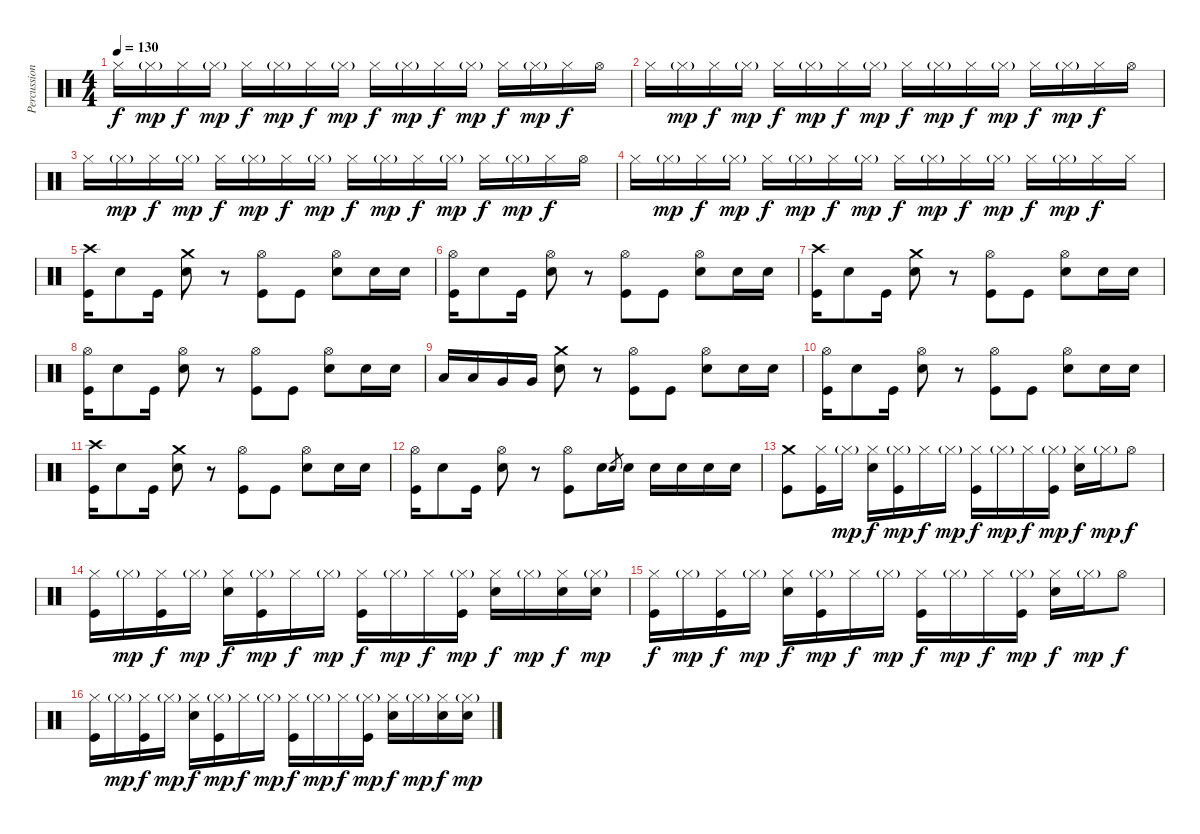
\track ("Percussion" "Percussion") {instrument percussion}
\staff {score}
\articulation defaults
\ts (4 4)
\tempo 130
\clef neutral
\ks c "Hi-Hat (closed)".16{dy f} "Hi-Hat (closed)"{g}.16{dy mp} "Hi-Hat (closed)".16{dy f} "Hi-Hat (closed)"{g}.16{dy mp} "Hi-Hat (closed)".16{dy f} "Hi-Hat (closed)"{g}.16{dy mp} "Hi-Hat (closed)".16{dy f} "Hi-Hat (closed)"{g}.16{dy mp} "Hi-Hat (closed)".16{dy f} "Hi-Hat (closed)"{g}.16{dy mp} "Hi-Hat (closed)".16{dy f} "Hi-Hat (closed)"{g}.16{dy mp} "Hi-Hat (closed)".16{dy f} "Hi-Hat (closed)"{g}.16{dy mp} "Hi-Hat (closed)".16{dy f} "Hi-Hat (open)".16
|
"Hi-Hat (closed)".16 "Hi-Hat (closed)"{g}.16{dy mp} "Hi-Hat (closed)".16{dy f} "Hi-Hat (closed)"{g}.16{dy mp} "Hi-Hat (closed)".16{dy f} "Hi-Hat (closed)"{g}.16{dy mp} "Hi-Hat (closed)".16{dy f} "Hi-Hat (closed)"{g}.16{dy mp} "Hi-Hat (closed)".16{dy f} "Hi-Hat (closed)"{g}.16{dy mp} "Hi-Hat (closed)".16{dy f} "Hi-Hat (closed)"{g}.16{dy mp} "Hi-Hat (closed)".16{dy f} "Hi-Hat (closed)"{g}.16{dy mp} "Hi-Hat (closed)".16{dy f} "Hi-Hat (open)".16 |
"Hi-Hat (closed)".16 "Hi-Hat (closed)"{g}.16{dy mp} "Hi-Hat (closed)".16{dy f} "Hi-Hat (closed)"{g}.16{dy mp} "Hi-Hat (closed)".16{dy f} "Hi-Hat (closed)"{g}.16{dy mp} "Hi-Hat (closed)".16{dy f} "Hi-Hat (closed)"{g}.16{dy mp} "Hi-Hat (closed)".16{dy f} "Hi-Hat (closed)"{g}.16{dy mp} "Hi-Hat (closed)".16{dy f} "Hi-Hat (closed)"{g}.16{dy mp} "Hi-Hat (closed)".16{dy f} "Hi-Hat (closed)"{g}.16{dy mp} "Hi-Hat (closed)".16{dy f} "Hi-Hat (open)".16 |
"Hi-Hat (closed)".16 "Hi-Hat (closed)"{g}.16{dy mp} "Hi-Hat (closed)".16{dy f} "Hi-Hat (closed)"{g}.16{dy mp} "Hi-Hat (closed)".16{dy f} "Hi-Hat (closed)"{g}.16{dy mp} "Hi-Hat (closed)".16{dy f} "Hi-Hat (closed)"{g}.16{dy mp} "Hi-Hat (closed)".16{dy f} "Hi-Hat (closed)"{g}.16{dy mp} "Hi-Hat (closed)".16{dy f} "Hi-Hat (closed)"{g}.16{dy mp} "Hi-Hat (closed)".16{dy f} "Hi-Hat (closed)"{g}.16{dy mp} "Hi-Hat (closed)".16{dy f} "Hi-Hat (closed)".16 |
("Crash high (hit)" "Kick (hit)").16 "Electric Snare (hit)".8 "Kick (hit)".16 ("Crash medium (hit)" "Electric Snare (hit)").8 r.8 ("Hi-Hat (open)" "Kick (hit)").8 "Kick (hit)".8 ("Hi-Hat (open)" "Electric Snare (hit)").8 "Electric Snare (hit)".16 "Electric Snare (hit)".16 |
("Hi-Hat (open)" "Kick (hit)").16 "Electric Snare (hit)".8 "Kick (hit)".16 ("Hi-Hat (open)" "Electric Snare (hit)").8 r.8 ("Hi-Hat (open)" "Kick (hit)").8 "Kick (hit)".8 ("Hi-Hat (open)" "Electric Snare (hit)").8 "Electric Snare (hit)".16 "Electric Snare (hit)".16 |
("Crash high (hit)" "Kick (hit)").16 "Electric Snare (hit)".8 "Kick (hit)".16 ("Crash medium (hit)" "Electric Snare (hit)").8 r.8 ("Hi-Hat (open)" "Kick (hit)").8 "Kick (hit)".8 ("Hi-Hat (open)" "Electric Snare (hit)").8 "Electric Snare (hit)".16 "Electric Snare (hit)".16 |
("Hi-Hat (open)" "Kick (hit)").16 "Electric Snare (hit)".8 "Kick (hit)".16 ("Hi-Hat (open)" "Electric Snare (hit)").8 r.8 ("Hi-Hat (open)" "Kick (hit)").8 "Kick (hit)".8 ("Hi-Hat (open)" "Electric Snare (hit)").8 "Electric Snare (hit)".16 "Electric Snare (hit)".16 |
"Low Tom (hit)".16 "Low Tom (hit)".16 "Very Low Tom (hit)".16 "Very Low Tom (hit)".16 ("Crash medium (hit)" "Electric Snare (hit)").8 r.8 ("Hi-Hat (open)" "Kick (hit)").8 "Kick (hit)".8 ("Hi-Hat (open)" "Electric Snare (hit)").8 "Electric Snare (hit)".16 "Electric Snare (hit)".16 |
("Hi-Hat (open)" "Kick (hit)").16 "Electric Snare (hit)".8 "Kick (hit)".16 ("Hi-Hat (open)" "Electric Snare (hit)").8 r.8 ("Hi-Hat (open)" "Kick (hit)").8 "Kick (hit)".8 ("Hi-Hat (open)" "Electric Snare (hit)").8 "Electric Snare (hit)".16 "Electric Snare (hit)".16 |
("Crash high (hit)" "Kick (hit)").16 "Electric Snare (hit)".8 "Kick (hit)".16 ("Crash medium (hit)" "Electric Snare (hit)").8 r.8 ("Hi-Hat (open)" "Kick (hit)").8 "Kick (hit)".8 ("Hi-Hat (open)" "Electric Snare (hit)").8 "Electric Snare (hit)".16 "Electric Snare (hit)".16 |
("Hi-Hat (open)" "Kick (hit)").16 "Electric Snare (hit)".8 "Kick (hit)".16 ("Hi-Hat (open)" "Electric Snare (hit)").8 r.8 ("Hi-Hat (open)" "Kick (hit)").8 "Electric Snare (hit)".16 "Electric Snare (hit)".8{gr} "Electric Snare (hit)".16 "Electric Snare (hit)".16 "Electric Snare (hit)".16 "Electric Snare (hit)".16 "Electric Snare (hit)".16 |
("Crash medium (hit)" "Kick (hit)").8 ("Hi-Hat (closed)" "Kick (hit)").16 "Hi-Hat (closed)"{g}.16{dy mp} ("Hi-Hat (closed)" "Electric Snare (hit)").16{dy f} ("Hi-Hat (closed)"{g} "Kick (hit)").16{dy mp} "Hi-Hat (closed)".16{dy f} "Hi-Hat (closed)"{g}.16{dy mp} ("Hi-Hat (closed)" "Kick (hit)").16{dy f} "Hi-Hat (closed)"{g}.16{dy mp} "Hi-Hat (closed)".16{dy f} ("Hi-Hat (closed)"{g} "Kick (hit)").16{dy mp} ("Hi-Hat (closed)" "Electric Snare (hit)").16{dy f} "Hi-Hat (closed)"{g}.16{dy mp} "Hi-Hat (open)".8{dy f} |
("Hi-Hat (closed)" "Kick (hit)").16 "Hi-Hat (closed)"{g}.16{dy mp} ("Hi-Hat (closed)" "Kick (hit)").16{dy f} "Hi-Hat (closed)"{g}.16{dy mp} ("Hi-Hat (closed)" "Electric Snare (hit)").16{dy f} ("Hi-Hat (closed)"{g} "Kick (hit)").16{dy mp} "Hi-Hat (closed)".16{dy f} "Hi-Hat (closed)"{g}.16{dy mp} ("Hi-Hat (closed)" "Kick (hit)").16{dy f} "Hi-Hat (closed)"{g}.16{dy mp} "Hi-Hat (closed)".16{dy f} ("Hi-Hat (closed)"{g} "Kick (hit)").16{dy mp} ("Hi-Hat (closed)" "Electric Snare (hit)").16{dy f} "Hi-Hat (closed)"{g}.16{dy mp} ("Hi-Hat (closed)" "Electric Snare (hit)").16{dy f} ("Hi-Hat (closed)"{g} "Electric Snare (hit)").16{dy mp} |
("Hi-Hat (closed)" "Kick (hit)").16{dy f} "Hi-Hat (closed)"{g}.16{dy mp} ("Hi-Hat (closed)" "Kick (hit)").16{dy f} "Hi-Hat (closed)"{g}.16{dy mp} ("Hi-Hat (closed)" "Electric Snare (hit)").16{dy f} ("Hi-Hat (closed)"{g} "Kick (hit)").16{dy mp} "Hi-Hat (closed)".16{dy f} "Hi-Hat (closed)"{g}.16{dy mp} ("Hi-Hat (closed)" "Kick (hit)").16{dy f} "Hi-Hat (closed)"{g}.16{dy mp} "Hi-Hat (closed)".16{dy f} ("Hi-Hat (closed)"{g} "Kick (hit)").16{dy mp} ("Hi-Hat (closed)" "Electric Snare (hit)").16{dy f} "Hi-Hat (closed)"{g}.16{dy mp} "Hi-Hat (open)".8{dy f} |
("Hi-Hat (closed)" "Kick (hit)").16 "Hi-Hat (closed)"{g}.16{dy mp} ("Hi-Hat (closed)" "Kick (hit)").16{dy f} "Hi-Hat (closed)"{g}.16{dy mp} ("Hi-Hat (closed)" "Electric Snare (hit)").16{dy f} ("Hi-Hat (closed)"{g} "Kick (hit)").16{dy mp} "Hi-Hat (closed)".16{dy f} "Hi-Hat (closed)"{g}.16{dy mp} ("Hi-Hat (closed)" "Kick (hit)").16{dy f} "Hi-Hat (closed)"{g}.16{dy mp} "Hi-Hat (closed)".16{dy f} ("Hi-Hat (closed)"{g} "Kick (hit)").16{dy mp} ("Hi-Hat (closed)" "Electric Snare (hit)").16{dy f} "Hi-Hat (closed)"{g}.16{dy mp} ("Hi-Hat (closed)" "Electric Snare (hit)").16{dy f} ("Hi-Hat (closed)"{g} "Electric Snare (hit)").16{dy mp}
